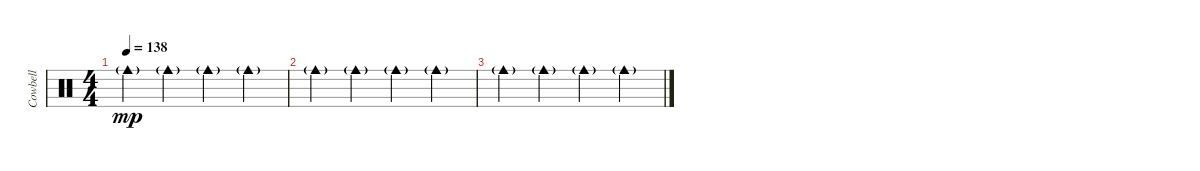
\track ("Cowbell" "Cowbell") {instrument percussion}
\staff {score}
\articulation defaults
\ts (4 4)
\tempo 138
\clef neutral
\ks c "Cowbell medium (hit)"{g}.4{dy mp} "Cowbell medium (hit)"{g}.4 "Cowbell medium (hit)"{g}.4 "Cowbell medium (hit)"{g}.4
|
"Cowbell medium (hit)"{g}.4 "Cowbell medium (hit)"{g}.4 "Cowbell medium (hit)"{g}.4 "Cowbell medium (hit)"{g}.4 |
"Cowbell medium (hit)"{g}.4 "Cowbell medium (hit)"{g}.4 "Cowbell medium (hit)"{g}.4 "Cowbell medium (hit)"{g}.4
